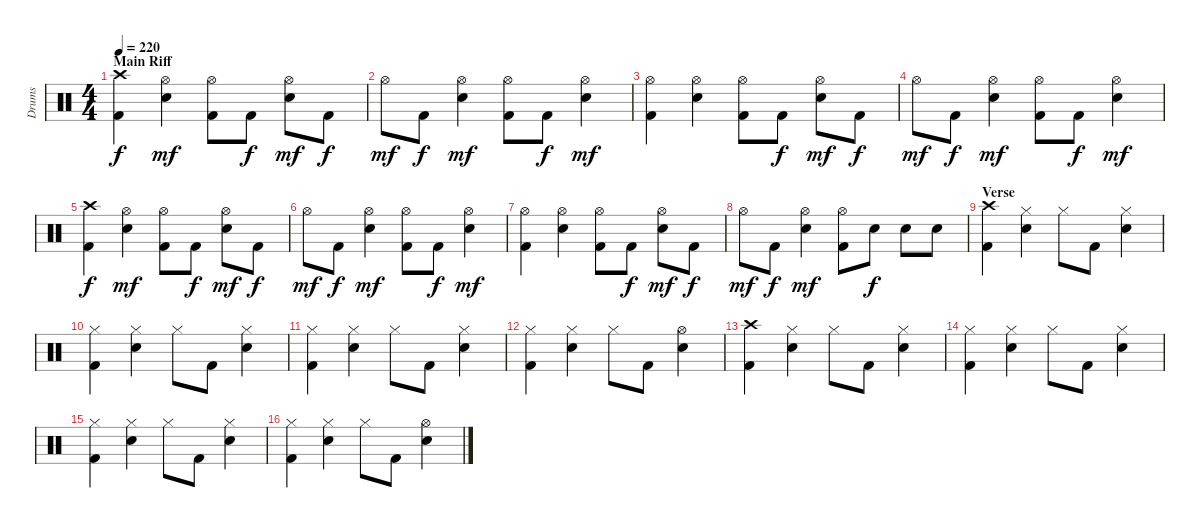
\track ("Drums" "Drums") {instrument percussion}
\staff {score}
\articulation defaults
\ts (4 4)
\section ("" "Main Riff")
\tempo 220
\clef neutral
\ks c
("Crash high (hit)" "Kick (hit) 2").4{dy f} ("Hi-Hat (open)" "Snare (hit) 2").4{dy mf} ("Hi-Hat (open)" "Kick (hit) 2").8 "Kick (hit) 2".8{dy f} ("Hi-Hat (open)" "Snare (hit) 2").8{dy mf} "Kick (hit) 2".8{dy f} |
"Hi-Hat (open)".8{dy mf} "Kick (hit) 2".8{dy f} ("Hi-Hat (open)" "Snare (hit) 2").4{dy mf} ("Hi-Hat (open)" "Kick (hit) 2").8 "Kick (hit) 2".8{dy f} ("Hi-Hat (open)" "Snare (hit) 2").4{dy mf} |
("Hi-Hat (open)" "Kick (hit) 2").4 ("Hi-Hat (open)" "Snare (hit) 2").4 ("Hi-Hat (open)" "Kick (hit) 2").8 "Kick (hit) 2".8{dy f} ("Hi-Hat (open)" "Snare (hit) 2").8{dy mf} "Kick (hit) 2".8{dy f} |
"Hi-Hat (open)".8{dy mf} "Kick (hit) 2".8{dy f} ("Hi-Hat (open)" "Snare (hit) 2").4{dy mf} ("Hi-Hat (open)" "Kick (hit) 2").8 "Kick (hit) 2".8{dy f} ("Hi-Hat (open)" "Snare (hit) 2").4{dy mf} |
("Crash high (hit)" "Kick (hit) 2").4{dy f} ("Hi-Hat (open)" "Snare (hit) 2").4{dy mf} ("Hi-Hat (open)" "Kick (hit) 2").8 "Kick (hit) 2".8{dy f} ("Hi-Hat (open)" "Snare (hit) 2").8{dy mf} "Kick (hit) 2".8{dy f} |
"Hi-Hat (open)".8{dy mf} "Kick (hit) 2".8{dy f} ("Hi-Hat (open)" "Snare (hit) 2").4{dy mf} ("Hi-Hat (open)" "Kick (hit) 2").8 "Kick (hit) 2".8{dy f} ("Hi-Hat (open)" "Snare (hit) 2").4{dy mf} |
("Hi-Hat (open)" "Kick (hit) 2").4 ("Hi-Hat (open)" "Snare (hit) 2").4 ("Hi-Hat (open)" "Kick (hit) 2").8 "Kick (hit) 2".8{dy f} ("Hi-Hat (open)" "Snare (hit) 2").8{dy mf} "Kick (hit) 2".8{dy f} |
"Hi-Hat (open)".8{dy mf} "Kick (hit) 2".8{dy f} ("Hi-Hat (open)" "Snare (hit) 2").4{dy mf} ("Hi-Hat (open)" "Kick (hit) 2").8 "Snare (hit) 2".8{dy f} "Snare (hit) 2".8 "Snare (hit) 2".8 |
\section ("" "Verse")
("Crash high (hit)" "Kick (hit) 2").4 ("Hi-Hat (closed)" "Snare (hit) 2").4 "Hi-Hat (closed)".8 "Kick (hit) 2".8 ("Hi-Hat (closed)" "Snare (hit) 2").4 |
("Hi-Hat (closed)" "Kick (hit) 2").4 ("Hi-Hat (closed)" "Snare (hit) 2").4 "Hi-Hat (closed)".8 "Kick (hit) 2".8 ("Hi-Hat (closed)" "Snare (hit) 2").4 |
("Hi-Hat (closed)" "Kick (hit) 2").4 ("Hi-Hat (closed)" "Snare (hit) 2").4 "Hi-Hat (closed)".8 "Kick (hit) 2".8 ("Hi-Hat (closed)" "Snare (hit) 2").4 |
("Hi-Hat (closed)" "Kick (hit) 2").4 ("Hi-Hat (closed)" "Snare (hit) 2").4 "Hi-Hat (closed)".8 "Kick (hit) 2".8 ("Hi-Hat (open)" "Snare (hit) 2").4 |
("Crash high (hit)" "Kick (hit) 2").4 ("Hi-Hat (closed)" "Snare (hit) 2").4 "Hi-Hat (closed)".8 "Kick (hit) 2".8 ("Hi-Hat (closed)" "Snare (hit) 2").4 |
("Hi-Hat (closed)" "Kick (hit) 2").4 ("Hi-Hat (closed)" "Snare (hit) 2").4 "Hi-Hat (closed)".8 "Kick (hit) 2".8 ("Hi-Hat (closed)" "Snare (hit) 2").4 |
("Hi-Hat (closed)" "Kick (hit) 2").4 ("Hi-Hat (closed)" "Snare (hit) 2").4 "Hi-Hat (closed)".8 "Kick (hit) 2".8 ("Hi-Hat (closed)" "Snare (hit) 2").4 |
("Hi-Hat (closed)" "Kick (hit) 2").4 ("Hi-Hat (closed)" "Snare (hit) 2").4 "Hi-Hat (closed)".8 "Kick (hit) 2".8 ("Hi-Hat (open)" "Snare (hit) 2").4
